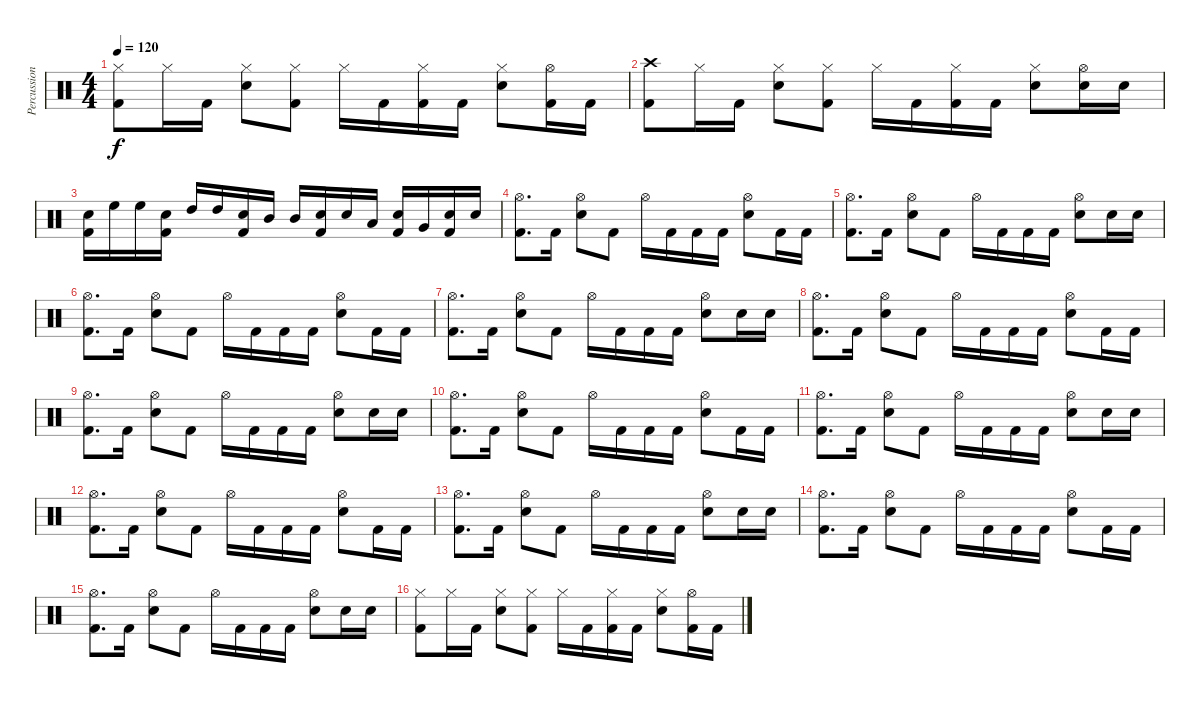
\track ("Percussion" "Percussion") {instrument percussion}
\staff {score}
\articulation defaults
\ts (4 4)
\tempo 120
\clef neutral
\ks c
("Hi-Hat (closed)" "Kick (hit) 2").8{dy f} "Hi-Hat (closed)".16 "Kick (hit) 2".16 ("Hi-Hat (closed)" "Snare (hit) 2").8 ("Hi-Hat (closed)" "Kick (hit) 2").8 "Hi-Hat (closed)".16 "Kick (hit) 2".16 ("Hi-Hat (closed)" "Kick (hit) 2").16 "Kick (hit) 2".16 ("Hi-Hat (closed)" "Snare (hit) 2").8 ("Hi-Hat (open)" "Kick (hit) 2").16 "Kick (hit) 2".16 |
("Crash high (hit)" "Kick (hit) 2").8 "Hi-Hat (closed)".16 "Kick (hit) 2".16 ("Hi-Hat (closed)" "Snare (hit) 2").8 ("Hi-Hat (closed)" "Kick (hit) 2").8 "Hi-Hat (closed)".16 "Kick (hit) 2".16 ("Hi-Hat (closed)" "Kick (hit) 2").16 "Kick (hit) 2".16 ("Hi-Hat (closed)" "Snare (hit) 2").8 ("Hi-Hat (open)" "Snare (hit) 2").16 "Snare (hit) 2".16 |
("Electric Snare (hit)" "Kick (hit) 2").16 "High Floor Tom (hit)".16 "High Floor Tom (hit)".16 ("Electric Snare (hit)" "Kick (hit) 2").16 "High Tom (hit)".16 "High Tom (hit)".16 ("Electric Snare (hit)" "Kick (hit) 2").16 "Mid Tom (hit)".16 "Mid Tom (hit)".16 ("Electric Snare (hit)" "Kick (hit) 2").16 "Electric Snare (hit)".16 "Low Tom (hit)".16 ("Electric Snare (hit)" "Kick (hit) 2").16 "Very Low Tom (hit)".16 ("Electric Snare (hit)" "Kick (hit) 2").16 "Electric Snare (hit)".16 |
("Hi-Hat (open)" "Kick (hit) 2").8{d} "Kick (hit) 2".16 ("Hi-Hat (open)" "Snare (hit) 2").8 "Kick (hit) 2".8 "Hi-Hat (open)".16 "Kick (hit) 2".16 "Kick (hit) 2".16 "Kick (hit) 2".16 ("Hi-Hat (open)" "Snare (hit) 2").8 "Kick (hit) 2".16 "Kick (hit) 2".16 |
("Hi-Hat (open)" "Kick (hit) 2").8{d} "Kick (hit) 2".16 ("Hi-Hat (open)" "Snare (hit) 2").8 "Kick (hit) 2".8 "Hi-Hat (open)".16 "Kick (hit) 2".16 "Kick (hit) 2".16 "Kick (hit) 2".16 ("Hi-Hat (open)" "Snare (hit) 2").8 "Snare (hit) 2".16 "Snare (hit) 2".16 |
("Hi-Hat (open)" "Kick (hit) 2").8{d} "Kick (hit) 2".16 ("Hi-Hat (open)" "Snare (hit) 2").8 "Kick (hit) 2".8 "Hi-Hat (open)".16 "Kick (hit) 2".16 "Kick (hit) 2".16 "Kick (hit) 2".16 ("Hi-Hat (open)" "Snare (hit) 2").8 "Kick (hit) 2".16 "Kick (hit) 2".16 |
("Hi-Hat (open)" "Kick (hit) 2").8{d} "Kick (hit) 2".16 ("Hi-Hat (open)" "Snare (hit) 2").8 "Kick (hit) 2".8 "Hi-Hat (open)".16 "Kick (hit) 2".16 "Kick (hit) 2".16 "Kick (hit) 2".16 ("Hi-Hat (open)" "Snare (hit) 2").8 "Snare (hit) 2".16 "Snare (hit) 2".16 |
("Hi-Hat (open)" "Kick (hit) 2").8{d} "Kick (hit) 2".16 ("Hi-Hat (open)" "Snare (hit) 2").8 "Kick (hit) 2".8 "Hi-Hat (open)".16 "Kick (hit) 2".16 "Kick (hit) 2".16 "Kick (hit) 2".16 ("Hi-Hat (open)" "Snare (hit) 2").8 "Kick (hit) 2".16 "Kick (hit) 2".16 |
("Hi-Hat (open)" "Kick (hit) 2").8{d} "Kick (hit) 2".16 ("Hi-Hat (open)" "Snare (hit) 2").8 "Kick (hit) 2".8 "Hi-Hat (open)".16 "Kick (hit) 2".16 "Kick (hit) 2".16 "Kick (hit) 2".16 ("Hi-Hat (open)" "Snare (hit) 2").8 "Snare (hit) 2".16 "Snare (hit) 2".16 |
("Hi-Hat (open)" "Kick (hit) 2").8{d} "Kick (hit) 2".16 ("Hi-Hat (open)" "Snare (hit) 2").8 "Kick (hit) 2".8 "Hi-Hat (open)".16 "Kick (hit) 2".16 "Kick (hit) 2".16 "Kick (hit) 2".16 ("Hi-Hat (open)" "Snare (hit) 2").8 "Kick (hit) 2".16 "Kick (hit) 2".16 |
("Hi-Hat (open)" "Kick (hit) 2").8{d} "Kick (hit) 2".16 ("Hi-Hat (open)" "Snare (hit) 2").8 "Kick (hit) 2".8 "Hi-Hat (open)".16 "Kick (hit) 2".16 "Kick (hit) 2".16 "Kick (hit) 2".16 ("Hi-Hat (open)" "Snare (hit) 2").8 "Snare (hit) 2".16 "Snare (hit) 2".16 |
("Hi-Hat (open)" "Kick (hit) 2").8{d} "Kick (hit) 2".16 ("Hi-Hat (open)" "Snare (hit) 2").8 "Kick (hit) 2".8 "Hi-Hat (open)".16 "Kick (hit) 2".16 "Kick (hit) 2".16 "Kick (hit) 2".16 ("Hi-Hat (open)" "Snare (hit) 2").8 "Kick (hit) 2".16 "Kick (hit) 2".16 |
("Hi-Hat (open)" "Kick (hit) 2").8{d} "Kick (hit) 2".16 ("Hi-Hat (open)" "Snare (hit) 2").8 "Kick (hit) 2".8 "Hi-Hat (open)".16 "Kick (hit) 2".16 "Kick (hit) 2".16 "Kick (hit) 2".16 ("Hi-Hat (open)" "Snare (hit) 2").8 "Snare (hit) 2".16 "Snare (hit) 2".16 |
("Hi-Hat (open)" "Kick (hit) 2").8{d} "Kick (hit) 2".16 ("Hi-Hat (open)" "Snare (hit) 2").8 "Kick (hit) 2".8 "Hi-Hat (open)".16 "Kick (hit) 2".16 "Kick (hit) 2".16 "Kick (hit) 2".16 ("Hi-Hat (open)" "Snare (hit) 2").8 "Kick (hit) 2".16 "Kick (hit) 2".16 |
("Hi-Hat (open)" "Kick (hit) 2").8{d} "Kick (hit) 2".16 ("Hi-Hat (open)" "Snare (hit) 2").8 "Kick (hit) 2".8 "Hi-Hat (open)".16 "Kick (hit) 2".16 "Kick (hit) 2".16 "Kick (hit) 2".16 ("Hi-Hat (open)" "Snare (hit) 2").8 "Snare (hit) 2".16 "Snare (hit) 2".16 |
("Hi-Hat (closed)" "Kick (hit) 2").8 "Hi-Hat (closed)".16 "Kick (hit) 2".16 ("Hi-Hat (closed)" "Snare (hit) 2").8 ("Hi-Hat (closed)" "Kick (hit) 2").8 "Hi-Hat (closed)".16 "Kick (hit) 2".16 ("Hi-Hat (closed)" "Kick (hit) 2").16 "Kick (hit) 2".16 ("Hi-Hat (closed)" "Snare (hit) 2").8 ("Hi-Hat (open)" "Kick (hit) 2").16 "Kick (hit) 2".16
